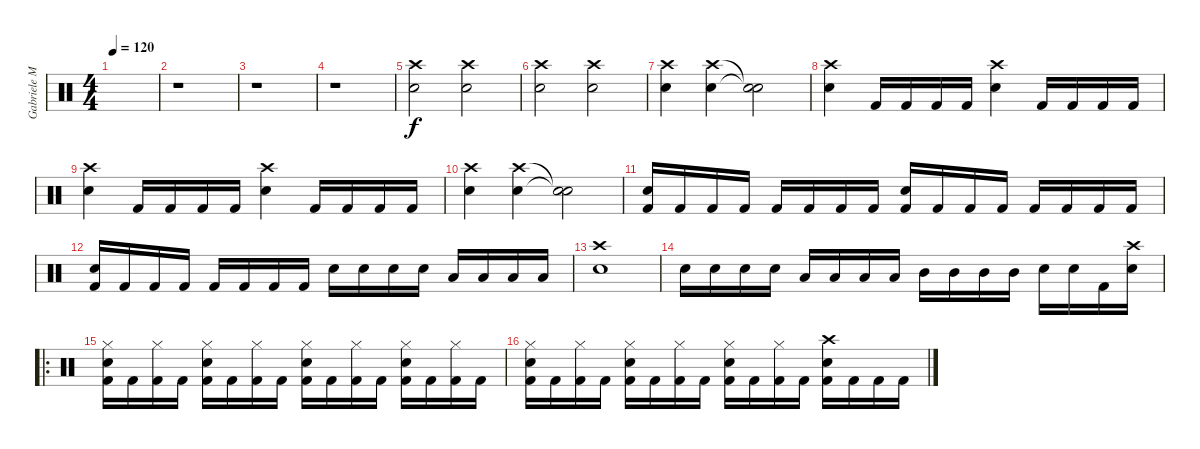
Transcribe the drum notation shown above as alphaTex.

\track ("Gabriele Malatesta" "Gabriele M") {instrument percussion}
\staff {score}
\articulation defaults
\ts (4 4)
\tempo 120
\clef neutral
\ks c
|
r.1 |
r.1 |
r.1 |
("Crash high (hit)" "Electric Snare (hit)").2 ("Crash high (hit)" "Electric Snare (hit)").2 |
("Crash high (hit)" "Electric Snare (hit)").2 ("Crash high (hit)" "Electric Snare (hit)").2 |
("Crash high (hit)" "Electric Snare (hit)").4 ("Crash high (hit)" "Electric Snare (hit)").4 ("Snare (hit)"{t} "Snare (hit)"{t}).2 |
("Crash high (hit)" "Electric Snare (hit)").4 "Kick (hit) 2".16 "Kick (hit) 2".16 "Kick (hit) 2".16 "Kick (hit) 2".16 ("Crash high (hit)" "Electric Snare (hit)").4 "Kick (hit) 2".16 "Kick (hit) 2".16 "Kick (hit) 2".16 "Kick (hit) 2".16 |
("Crash high (hit)" "Electric Snare (hit)").4 "Kick (hit) 2".16 "Kick (hit) 2".16 "Kick (hit) 2".16 "Kick (hit) 2".16 ("Crash high (hit)" "Electric Snare (hit)").4 "Kick (hit) 2".16 "Kick (hit) 2".16 "Kick (hit) 2".16 "Kick (hit) 2".16 |
("Crash high (hit)" "Electric Snare (hit)").4 ("Crash high (hit)" "Electric Snare (hit)").4 ("Snare (hit)"{t} "Snare (hit)"{t}).2 |
("Electric Snare (hit)" "Kick (hit) 2").16 "Kick (hit) 2".16 "Kick (hit) 2".16 "Kick (hit) 2".16 "Kick (hit) 2".16 "Kick (hit) 2".16 "Kick (hit) 2".16 "Kick (hit) 2".16 ("Electric Snare (hit)" "Kick (hit) 2").16 "Kick (hit) 2".16 "Kick (hit) 2".16 "Kick (hit) 2".16 "Kick (hit) 2".16 "Kick (hit) 2".16 "Kick (hit) 2".16 "Kick (hit) 2".16 |
("Electric Snare (hit)" "Kick (hit) 2").16 "Kick (hit) 2".16 "Kick (hit) 2".16 "Kick (hit) 2".16 "Kick (hit) 2".16 "Kick (hit) 2".16 "Kick (hit) 2".16 "Kick (hit) 2".16 "Electric Snare (hit)".16 "Electric Snare (hit)".16 "Electric Snare (hit)".16 "Electric Snare (hit)".16 "Low Floor Tom (hit)".16 "Low Floor Tom (hit)".16 "Low Floor Tom (hit)".16 "Low Floor Tom (hit)".16 |
("Crash high (hit)" "Electric Snare (hit)").1 |
"Electric Snare (hit)".16 "Electric Snare (hit)".16 "Electric Snare (hit)".16 "Electric Snare (hit)".16 "Low Tom (hit)".16 "Low Tom (hit)".16 "Low Tom (hit)".16 "Low Tom (hit)".16 "Mid Tom (hit)".16 "Mid Tom (hit)".16 "Mid Tom (hit)".16 "Mid Tom (hit)".16 "Electric Snare (hit)".16 "Electric Snare (hit)".16 "Kick (hit) 2".16 ("Crash high (hit)" "Electric Snare (hit)").16 |
\ro
("Hi-Hat (closed)" "Electric Snare (hit)" "Kick (hit) 2").16 "Kick (hit) 2".16 ("Hi-Hat (closed)" "Kick (hit) 2").16 "Kick (hit) 2".16 ("Hi-Hat (closed)" "Electric Snare (hit)" "Kick (hit) 2").16 "Kick (hit) 2".16 ("Hi-Hat (closed)" "Kick (hit) 2").16 "Kick (hit) 2".16 ("Hi-Hat (closed)" "Electric Snare (hit)" "Kick (hit) 2").16 "Kick (hit) 2".16 ("Hi-Hat (closed)" "Kick (hit) 2").16 "Kick (hit) 2".16 ("Hi-Hat (closed)" "Electric Snare (hit)" "Kick (hit) 2").16 "Kick (hit) 2".16 ("Hi-Hat (closed)" "Kick (hit) 2").16 "Kick (hit) 2".16 |
("Hi-Hat (closed)" "Electric Snare (hit)" "Kick (hit) 2").16 "Kick (hit) 2".16 ("Hi-Hat (closed)" "Kick (hit) 2").16 "Kick (hit) 2".16 ("Hi-Hat (closed)" "Electric Snare (hit)" "Kick (hit) 2").16 "Kick (hit) 2".16 ("Hi-Hat (closed)" "Kick (hit) 2").16 "Kick (hit) 2".16 ("Hi-Hat (closed)" "Electric Snare (hit)" "Kick (hit) 2").16 "Kick (hit) 2".16 ("Hi-Hat (closed)" "Kick (hit) 2").16 "Kick (hit) 2".16 ("Crash high (hit)" "Electric Snare (hit)" "Kick (hit) 2").16 "Kick (hit) 2".16 "Kick (hit) 2".16 "Kick (hit) 2".16
